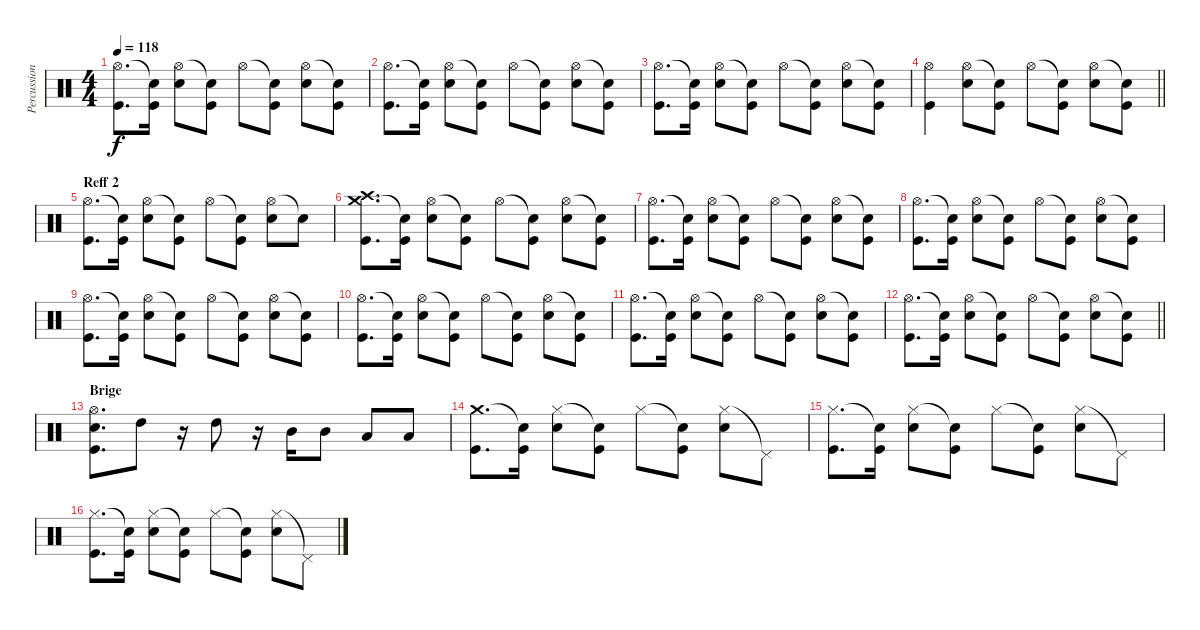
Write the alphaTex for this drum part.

\track ("Percussion 1" "Percussion") {instrument percussion}
\staff {score}
\articulation defaults
\ts (4 4)
\tempo 118
\clef neutral
\ks c
("Hi-Hat (open)" "Kick (hit)").8{d dy f} ("Snare (hit)"{t} "Kick (hit)").16 ("Hi-Hat (open)" "Electric Snare (hit)").8 ("Snare (hit)"{t} "Kick (hit)").8 "Hi-Hat (open)".8 ("Snare (hit)"{t} "Kick (hit)").8 ("Hi-Hat (open)" "Electric Snare (hit)").8 ("Snare (hit)"{t} "Kick (hit)").8 |
("Hi-Hat (open)" "Kick (hit)").8{d} ("Snare (hit)"{t} "Kick (hit)").16 ("Hi-Hat (open)" "Electric Snare (hit)").8 ("Snare (hit)"{t} "Kick (hit)").8 "Hi-Hat (open)".8 ("Snare (hit)"{t} "Kick (hit)").8 ("Hi-Hat (open)" "Electric Snare (hit)").8 ("Snare (hit)"{t} "Kick (hit)").8 |
("Hi-Hat (open)" "Kick (hit)").8{d} ("Snare (hit)"{t} "Kick (hit)").16 ("Hi-Hat (open)" "Electric Snare (hit)").8 ("Snare (hit)"{t} "Kick (hit)").8 "Hi-Hat (open)".8 ("Snare (hit)"{t} "Kick (hit)").8 ("Hi-Hat (open)" "Electric Snare (hit)").8 ("Snare (hit)"{t} "Kick (hit)").8 |
\barLineRight lightlight
("Hi-Hat (open)" "Kick (hit)").4 ("Hi-Hat (open)" "Electric Snare (hit)").8 ("Snare (hit)"{t} "Kick (hit)").8 "Hi-Hat (open)".8 ("Snare (hit)"{t} "Kick (hit)").8 ("Hi-Hat (open)" "Electric Snare (hit)").8 ("Snare (hit)"{t} "Kick (hit)").8 |
\section ("" "Reff 2")
("Hi-Hat (open)" "Kick (hit)").8{d} ("Snare (hit)"{t} "Kick (hit)").16 ("Hi-Hat (open)" "Electric Snare (hit)").8 ("Snare (hit)"{t} "Kick (hit)").8 "Hi-Hat (open)".8 ("Snare (hit)"{t} "Kick (hit)").8 ("Hi-Hat (open)" "Electric Snare (hit)").8 "Snare (hit)"{t}.8 |
("Crash medium (hit)" "Crash high (hit)" "Kick (hit)").8{d} ("Snare (hit)"{t} "Kick (hit)").16 ("Hi-Hat (open)" "Electric Snare (hit)").8 ("Snare (hit)"{t} "Kick (hit)").8 "Hi-Hat (open)".8 ("Snare (hit)"{t} "Kick (hit)").8 ("Hi-Hat (open)" "Electric Snare (hit)").8 ("Snare (hit)"{t} "Kick (hit)").8 |
("Hi-Hat (open)" "Kick (hit)").8{d} ("Snare (hit)"{t} "Kick (hit)").16 ("Hi-Hat (open)" "Electric Snare (hit)").8 ("Snare (hit)"{t} "Kick (hit)").8 "Hi-Hat (open)".8 ("Snare (hit)"{t} "Kick (hit)").8 ("Hi-Hat (open)" "Electric Snare (hit)").8 ("Snare (hit)"{t} "Kick (hit)").8 |
("Hi-Hat (open)" "Kick (hit)").8{d} ("Snare (hit)"{t} "Kick (hit)").16 ("Hi-Hat (open)" "Electric Snare (hit)").8 ("Snare (hit)"{t} "Kick (hit)").8 "Hi-Hat (open)".8 ("Snare (hit)"{t} "Kick (hit)").8 ("Hi-Hat (open)" "Electric Snare (hit)").8 ("Snare (hit)"{t} "Kick (hit)").8 |
("Hi-Hat (open)" "Kick (hit)").8{d} ("Snare (hit)"{t} "Kick (hit)").16 ("Hi-Hat (open)" "Electric Snare (hit)").8 ("Snare (hit)"{t} "Kick (hit)").8 "Hi-Hat (open)".8 ("Snare (hit)"{t} "Kick (hit)").8 ("Hi-Hat (open)" "Electric Snare (hit)").8 ("Snare (hit)"{t} "Kick (hit)").8 |
("Hi-Hat (open)" "Kick (hit)").8{d} ("Snare (hit)"{t} "Kick (hit)").16 ("Hi-Hat (open)" "Electric Snare (hit)").8 ("Snare (hit)"{t} "Kick (hit)").8 "Hi-Hat (open)".8 ("Snare (hit)"{t} "Kick (hit)").8 ("Hi-Hat (open)" "Electric Snare (hit)").8 ("Snare (hit)"{t} "Kick (hit)").8 |
("Hi-Hat (open)" "Kick (hit)").8{d} ("Snare (hit)"{t} "Kick (hit)").16 ("Hi-Hat (open)" "Electric Snare (hit)").8 ("Snare (hit)"{t} "Kick (hit)").8 "Hi-Hat (open)".8 ("Snare (hit)"{t} "Kick (hit)").8 ("Hi-Hat (open)" "Electric Snare (hit)").8 ("Snare (hit)"{t} "Kick (hit)").8 |
\barLineRight lightlight
("Hi-Hat (open)" "Kick (hit)").8{d} ("Snare (hit)"{t} "Kick (hit)").16 ("Hi-Hat (open)" "Electric Snare (hit)").8 ("Snare (hit)"{t} "Kick (hit)").8 "Hi-Hat (open)".8 ("Snare (hit)"{t} "Kick (hit)").8 ("Hi-Hat (open)" "Electric Snare (hit)").8 ("Snare (hit)"{t} "Kick (hit)").8 |
\section ("" "Brige")
("Hi-Hat (open)" "Electric Snare (hit)" "Kick (hit)").8{d} "High Tom (hit)".8 r.16 "High Tom (hit)".8 r.16 "Mid Tom (hit)".16 "Mid Tom (hit)".8 "Low Tom (hit)".8 "Low Floor Tom (hit)".8 |
("Crash medium (hit)" "Kick (hit)").8{d} ("Snare (hit)"{t} "Kick (hit)").16 ("Hi-Hat (closed)" "Electric Snare (hit)").8 ("Snare (hit)"{t} "Kick (hit)").8 "Hi-Hat (closed)".8 ("Snare (hit)"{t} "Kick (hit)").8 ("Hi-Hat (closed)" "Electric Snare (hit)").8 "Pedal Hi-Hat (hit)"{t}.8 |
("Hi-Hat (closed)" "Kick (hit)").8{d} ("Snare (hit)"{t} "Kick (hit)").16 ("Hi-Hat (closed)" "Electric Snare (hit)").8 ("Snare (hit)"{t} "Kick (hit)").8 "Hi-Hat (closed)".8 ("Snare (hit)"{t} "Kick (hit)").8 ("Hi-Hat (closed)" "Electric Snare (hit)").8 "Pedal Hi-Hat (hit)"{t}.8 |
("Hi-Hat (closed)" "Kick (hit)").8{d} ("Snare (hit)"{t} "Kick (hit)").16 ("Hi-Hat (closed)" "Electric Snare (hit)").8 ("Snare (hit)"{t} "Kick (hit)").8 "Hi-Hat (closed)".8 ("Snare (hit)"{t} "Kick (hit)").8 ("Hi-Hat (closed)" "Electric Snare (hit)").8 "Pedal Hi-Hat (hit)"{t}.8
